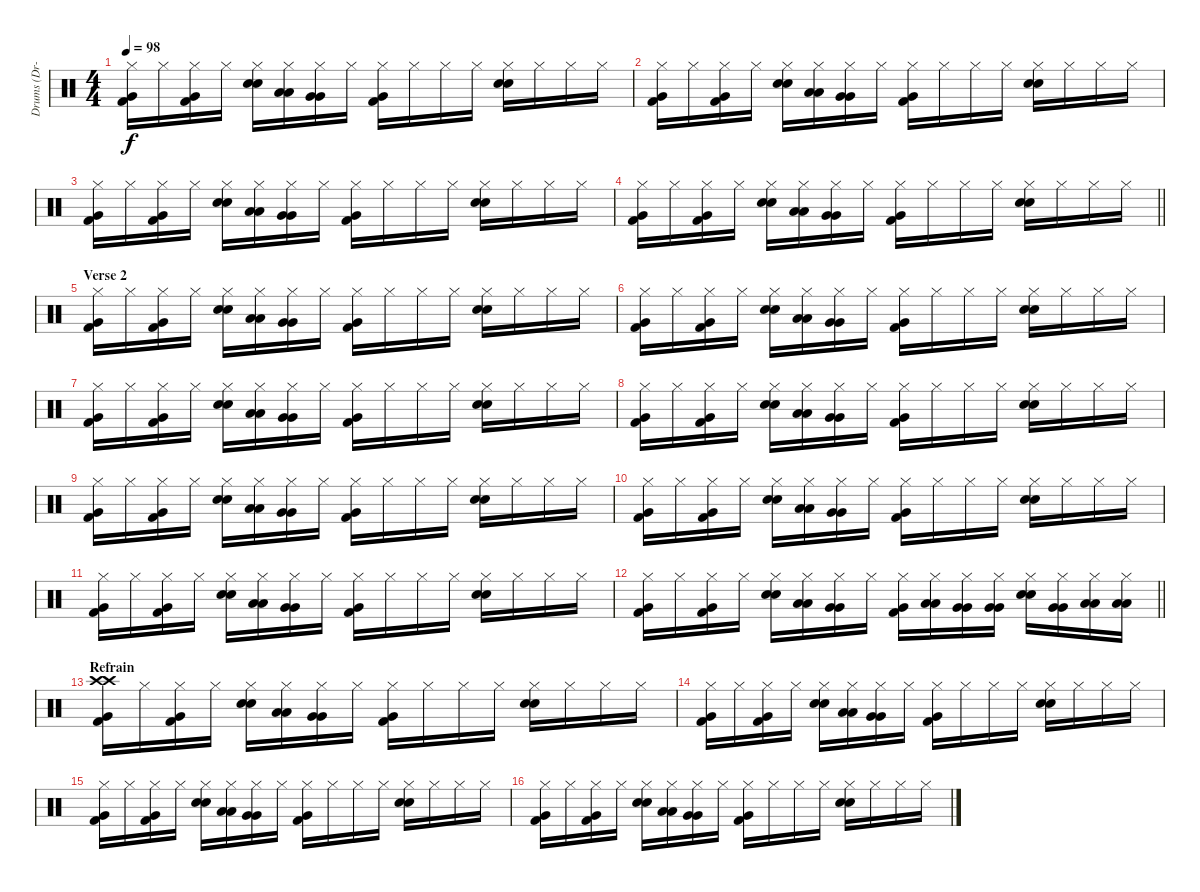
\track ("Drums (Dr-0)" "Drums (Dr-") {instrument percussion}
\staff {score}
\articulation defaults
\ts (4 4)
\tempo 98
\clef neutral
\ks c
("Hi-Hat (closed)" "Very Low Tom (hit)" "Kick (hit) 2").16{dy f} "Hi-Hat (closed)".16 ("Hi-Hat (closed)" "Very Low Tom (hit)" "Kick (hit) 2").16 "Hi-Hat (closed)".16 ("Hi-Hat (closed)" "Electric Snare (hit)" "Snare (hit) 2").16 ("Hi-Hat (closed)" "Low Tom (hit)" "Low Tom (hit)").16 ("Hi-Hat (closed)" "Very Low Tom (hit)" "Very Low Tom (hit)").16 "Hi-Hat (closed)".16 ("Hi-Hat (closed)" "Very Low Tom (hit)" "Kick (hit) 2").16 "Hi-Hat (closed)".16 "Hi-Hat (closed)".16 "Hi-Hat (closed)".16 ("Hi-Hat (closed)" "Electric Snare (hit)" "Snare (hit) 2").16 "Hi-Hat (closed)".16 "Hi-Hat (closed)".16 "Hi-Hat (closed)".16 |
("Hi-Hat (closed)" "Very Low Tom (hit)" "Kick (hit) 2").16 "Hi-Hat (closed)".16 ("Hi-Hat (closed)" "Very Low Tom (hit)" "Kick (hit) 2").16 "Hi-Hat (closed)".16 ("Hi-Hat (closed)" "Electric Snare (hit)" "Snare (hit) 2").16 ("Hi-Hat (closed)" "Low Tom (hit)" "Low Tom (hit)").16 ("Hi-Hat (closed)" "Very Low Tom (hit)" "Very Low Tom (hit)").16 "Hi-Hat (closed)".16 ("Hi-Hat (closed)" "Very Low Tom (hit)" "Kick (hit) 2").16 "Hi-Hat (closed)".16 "Hi-Hat (closed)".16 "Hi-Hat (closed)".16 ("Hi-Hat (closed)" "Electric Snare (hit)" "Snare (hit) 2").16 "Hi-Hat (closed)".16 "Hi-Hat (closed)".16 "Hi-Hat (closed)".16 |
("Hi-Hat (closed)" "Very Low Tom (hit)" "Kick (hit) 2").16 "Hi-Hat (closed)".16 ("Hi-Hat (closed)" "Very Low Tom (hit)" "Kick (hit) 2").16 "Hi-Hat (closed)".16 ("Hi-Hat (closed)" "Electric Snare (hit)" "Snare (hit) 2").16 ("Hi-Hat (closed)" "Low Tom (hit)" "Low Tom (hit)").16 ("Hi-Hat (closed)" "Very Low Tom (hit)" "Very Low Tom (hit)").16 "Hi-Hat (closed)".16 ("Hi-Hat (closed)" "Very Low Tom (hit)" "Kick (hit) 2").16 "Hi-Hat (closed)".16 "Hi-Hat (closed)".16 "Hi-Hat (closed)".16 ("Hi-Hat (closed)" "Electric Snare (hit)" "Snare (hit) 2").16 "Hi-Hat (closed)".16 "Hi-Hat (closed)".16 "Hi-Hat (closed)".16 |
\barLineRight lightlight
("Hi-Hat (closed)" "Very Low Tom (hit)" "Kick (hit) 2").16 "Hi-Hat (closed)".16 ("Hi-Hat (closed)" "Very Low Tom (hit)" "Kick (hit) 2").16 "Hi-Hat (closed)".16 ("Hi-Hat (closed)" "Electric Snare (hit)" "Snare (hit) 2").16 ("Hi-Hat (closed)" "Low Tom (hit)" "Low Tom (hit)").16 ("Hi-Hat (closed)" "Very Low Tom (hit)" "Very Low Tom (hit)").16 "Hi-Hat (closed)".16 ("Hi-Hat (closed)" "Very Low Tom (hit)" "Kick (hit) 2").16 "Hi-Hat (closed)".16 "Hi-Hat (closed)".16 "Hi-Hat (closed)".16 ("Hi-Hat (closed)" "Electric Snare (hit)" "Snare (hit) 2").16 "Hi-Hat (closed)".16 "Hi-Hat (closed)".16 "Hi-Hat (closed)".16 |
\section ("" "Verse 2")
("Hi-Hat (closed)" "Very Low Tom (hit)" "Kick (hit) 2").16 "Hi-Hat (closed)".16 ("Hi-Hat (closed)" "Very Low Tom (hit)" "Kick (hit) 2").16 "Hi-Hat (closed)".16 ("Hi-Hat (closed)" "Electric Snare (hit)" "Snare (hit) 2").16 ("Hi-Hat (closed)" "Low Tom (hit)" "Low Tom (hit)").16 ("Hi-Hat (closed)" "Very Low Tom (hit)" "Very Low Tom (hit)").16 "Hi-Hat (closed)".16 ("Hi-Hat (closed)" "Very Low Tom (hit)" "Kick (hit) 2").16 "Hi-Hat (closed)".16 "Hi-Hat (closed)".16 "Hi-Hat (closed)".16 ("Hi-Hat (closed)" "Electric Snare (hit)" "Snare (hit) 2").16 "Hi-Hat (closed)".16 "Hi-Hat (closed)".16 "Hi-Hat (closed)".16 |
("Hi-Hat (closed)" "Very Low Tom (hit)" "Kick (hit) 2").16 "Hi-Hat (closed)".16 ("Hi-Hat (closed)" "Very Low Tom (hit)" "Kick (hit) 2").16 "Hi-Hat (closed)".16 ("Hi-Hat (closed)" "Electric Snare (hit)" "Snare (hit) 2").16 ("Hi-Hat (closed)" "Low Tom (hit)" "Low Tom (hit)").16 ("Hi-Hat (closed)" "Very Low Tom (hit)" "Very Low Tom (hit)").16 "Hi-Hat (closed)".16 ("Hi-Hat (closed)" "Very Low Tom (hit)" "Kick (hit) 2").16 "Hi-Hat (closed)".16 "Hi-Hat (closed)".16 "Hi-Hat (closed)".16 ("Hi-Hat (closed)" "Electric Snare (hit)" "Snare (hit) 2").16 "Hi-Hat (closed)".16 "Hi-Hat (closed)".16 "Hi-Hat (closed)".16 |
("Hi-Hat (closed)" "Very Low Tom (hit)" "Kick (hit) 2").16 "Hi-Hat (closed)".16 ("Hi-Hat (closed)" "Very Low Tom (hit)" "Kick (hit) 2").16 "Hi-Hat (closed)".16 ("Hi-Hat (closed)" "Electric Snare (hit)" "Snare (hit) 2").16 ("Hi-Hat (closed)" "Low Tom (hit)" "Low Tom (hit)").16 ("Hi-Hat (closed)" "Very Low Tom (hit)" "Very Low Tom (hit)").16 "Hi-Hat (closed)".16 ("Hi-Hat (closed)" "Very Low Tom (hit)" "Kick (hit) 2").16 "Hi-Hat (closed)".16 "Hi-Hat (closed)".16 "Hi-Hat (closed)".16 ("Hi-Hat (closed)" "Electric Snare (hit)" "Snare (hit) 2").16 "Hi-Hat (closed)".16 "Hi-Hat (closed)".16 "Hi-Hat (closed)".16 |
("Hi-Hat (closed)" "Very Low Tom (hit)" "Kick (hit) 2").16 "Hi-Hat (closed)".16 ("Hi-Hat (closed)" "Very Low Tom (hit)" "Kick (hit) 2").16 "Hi-Hat (closed)".16 ("Hi-Hat (closed)" "Electric Snare (hit)" "Snare (hit) 2").16 ("Hi-Hat (closed)" "Low Tom (hit)" "Low Tom (hit)").16 ("Hi-Hat (closed)" "Very Low Tom (hit)" "Very Low Tom (hit)").16 "Hi-Hat (closed)".16 ("Hi-Hat (closed)" "Very Low Tom (hit)" "Kick (hit) 2").16 "Hi-Hat (closed)".16 "Hi-Hat (closed)".16 "Hi-Hat (closed)".16 ("Hi-Hat (closed)" "Electric Snare (hit)" "Snare (hit) 2").16 "Hi-Hat (closed)".16 "Hi-Hat (closed)".16 "Hi-Hat (closed)".16 |
("Hi-Hat (closed)" "Very Low Tom (hit)" "Kick (hit) 2").16 "Hi-Hat (closed)".16 ("Hi-Hat (closed)" "Very Low Tom (hit)" "Kick (hit) 2").16 "Hi-Hat (closed)".16 ("Hi-Hat (closed)" "Electric Snare (hit)" "Snare (hit) 2").16 ("Hi-Hat (closed)" "Low Tom (hit)" "Low Tom (hit)").16 ("Hi-Hat (closed)" "Very Low Tom (hit)" "Very Low Tom (hit)").16 "Hi-Hat (closed)".16 ("Hi-Hat (closed)" "Very Low Tom (hit)" "Kick (hit) 2").16 "Hi-Hat (closed)".16 "Hi-Hat (closed)".16 "Hi-Hat (closed)".16 ("Hi-Hat (closed)" "Electric Snare (hit)" "Snare (hit) 2").16 "Hi-Hat (closed)".16 "Hi-Hat (closed)".16 "Hi-Hat (closed)".16 |
("Hi-Hat (closed)" "Very Low Tom (hit)" "Kick (hit) 2").16 "Hi-Hat (closed)".16 ("Hi-Hat (closed)" "Very Low Tom (hit)" "Kick (hit) 2").16 "Hi-Hat (closed)".16 ("Hi-Hat (closed)" "Electric Snare (hit)" "Snare (hit) 2").16 ("Hi-Hat (closed)" "Low Tom (hit)" "Low Tom (hit)").16 ("Hi-Hat (closed)" "Very Low Tom (hit)" "Very Low Tom (hit)").16 "Hi-Hat (closed)".16 ("Hi-Hat (closed)" "Very Low Tom (hit)" "Kick (hit) 2").16 "Hi-Hat (closed)".16 "Hi-Hat (closed)".16 "Hi-Hat (closed)".16 ("Hi-Hat (closed)" "Electric Snare (hit)" "Snare (hit) 2").16 "Hi-Hat (closed)".16 "Hi-Hat (closed)".16 "Hi-Hat (closed)".16 |
("Hi-Hat (closed)" "Very Low Tom (hit)" "Kick (hit) 2").16 "Hi-Hat (closed)".16 ("Hi-Hat (closed)" "Very Low Tom (hit)" "Kick (hit) 2").16 "Hi-Hat (closed)".16 ("Hi-Hat (closed)" "Electric Snare (hit)" "Snare (hit) 2").16 ("Hi-Hat (closed)" "Low Tom (hit)" "Low Tom (hit)").16 ("Hi-Hat (closed)" "Very Low Tom (hit)" "Very Low Tom (hit)").16 "Hi-Hat (closed)".16 ("Hi-Hat (closed)" "Very Low Tom (hit)" "Kick (hit) 2").16 "Hi-Hat (closed)".16 "Hi-Hat (closed)".16 "Hi-Hat (closed)".16 ("Hi-Hat (closed)" "Electric Snare (hit)" "Snare (hit) 2").16 "Hi-Hat (closed)".16 "Hi-Hat (closed)".16 "Hi-Hat (closed)".16 |
\barLineRight lightlight
("Hi-Hat (closed)" "Very Low Tom (hit)" "Kick (hit) 2").16 "Hi-Hat (closed)".16 ("Hi-Hat (closed)" "Very Low Tom (hit)" "Kick (hit) 2").16 "Hi-Hat (closed)".16 ("Hi-Hat (closed)" "Electric Snare (hit)" "Snare (hit) 2").16 ("Hi-Hat (closed)" "Low Tom (hit)" "Low Tom (hit)").16 ("Hi-Hat (closed)" "Very Low Tom (hit)" "Very Low Tom (hit)").16 "Hi-Hat (closed)".16 ("Hi-Hat (closed)" "Very Low Tom (hit)" "Kick (hit) 2").16 ("Hi-Hat (closed)" "Low Tom (hit)" "Low Tom (hit)").16 ("Hi-Hat (closed)" "Very Low Tom (hit)" "Very Low Tom (hit)").16 ("Hi-Hat (closed)" "Very Low Tom (hit)" "Very Low Tom (hit)").16 ("Hi-Hat (closed)" "Electric Snare (hit)" "Snare (hit) 2").16 ("Hi-Hat (closed)" "Very Low Tom (hit)" "Very Low Tom (hit)").16 ("Hi-Hat (closed)" "Low Floor Tom (hit)" "Low Floor Tom (hit)").16 ("Hi-Hat (closed)" "Low Floor Tom (hit)" "Low Floor Tom (hit)").16 |
\section ("" "Refrain")
("Crash high (hit)" "Crash high (hit)" "Very Low Tom (hit)" "Kick (hit) 2").16 "Hi-Hat (closed)".16 ("Hi-Hat (closed)" "Very Low Tom (hit)" "Kick (hit) 2").16 "Hi-Hat (closed)".16 ("Hi-Hat (closed)" "Electric Snare (hit)" "Snare (hit) 2").16 ("Hi-Hat (closed)" "Low Tom (hit)" "Low Tom (hit)").16 ("Hi-Hat (closed)" "Very Low Tom (hit)" "Very Low Tom (hit)").16 "Hi-Hat (closed)".16 ("Hi-Hat (closed)" "Very Low Tom (hit)" "Kick (hit) 2").16 "Hi-Hat (closed)".16 "Hi-Hat (closed)".16 "Hi-Hat (closed)".16 ("Hi-Hat (closed)" "Electric Snare (hit)" "Snare (hit) 2").16 "Hi-Hat (closed)".16 "Hi-Hat (closed)".16 "Hi-Hat (closed)".16 |
("Hi-Hat (closed)" "Very Low Tom (hit)" "Kick (hit) 2").16 "Hi-Hat (closed)".16 ("Hi-Hat (closed)" "Very Low Tom (hit)" "Kick (hit) 2").16 "Hi-Hat (closed)".16 ("Hi-Hat (closed)" "Electric Snare (hit)" "Snare (hit) 2").16 ("Hi-Hat (closed)" "Low Tom (hit)" "Low Tom (hit)").16 ("Hi-Hat (closed)" "Very Low Tom (hit)" "Very Low Tom (hit)").16 "Hi-Hat (closed)".16 ("Hi-Hat (closed)" "Very Low Tom (hit)" "Kick (hit) 2").16 "Hi-Hat (closed)".16 "Hi-Hat (closed)".16 "Hi-Hat (closed)".16 ("Hi-Hat (closed)" "Electric Snare (hit)" "Snare (hit) 2").16 "Hi-Hat (closed)".16 "Hi-Hat (closed)".16 "Hi-Hat (closed)".16 |
("Hi-Hat (closed)" "Very Low Tom (hit)" "Kick (hit) 2").16 "Hi-Hat (closed)".16 ("Hi-Hat (closed)" "Very Low Tom (hit)" "Kick (hit) 2").16 "Hi-Hat (closed)".16 ("Hi-Hat (closed)" "Electric Snare (hit)" "Snare (hit) 2").16 ("Hi-Hat (closed)" "Low Tom (hit)" "Low Tom (hit)").16 ("Hi-Hat (closed)" "Very Low Tom (hit)" "Very Low Tom (hit)").16 "Hi-Hat (closed)".16 ("Hi-Hat (closed)" "Very Low Tom (hit)" "Kick (hit) 2").16 "Hi-Hat (closed)".16 "Hi-Hat (closed)".16 "Hi-Hat (closed)".16 ("Hi-Hat (closed)" "Electric Snare (hit)" "Snare (hit) 2").16 "Hi-Hat (closed)".16 "Hi-Hat (closed)".16 "Hi-Hat (closed)".16 |
("Hi-Hat (closed)" "Very Low Tom (hit)" "Kick (hit) 2").16 "Hi-Hat (closed)".16 ("Hi-Hat (closed)" "Very Low Tom (hit)" "Kick (hit) 2").16 "Hi-Hat (closed)".16 ("Hi-Hat (closed)" "Electric Snare (hit)" "Snare (hit) 2").16 ("Hi-Hat (closed)" "Low Tom (hit)" "Low Tom (hit)").16 ("Hi-Hat (closed)" "Very Low Tom (hit)" "Very Low Tom (hit)").16 "Hi-Hat (closed)".16 ("Hi-Hat (closed)" "Very Low Tom (hit)" "Kick (hit) 2").16 "Hi-Hat (closed)".16 "Hi-Hat (closed)".16 "Hi-Hat (closed)".16 ("Hi-Hat (closed)" "Electric Snare (hit)" "Snare (hit) 2").16 "Hi-Hat (closed)".16 "Hi-Hat (closed)".16 "Hi-Hat (closed)".16
